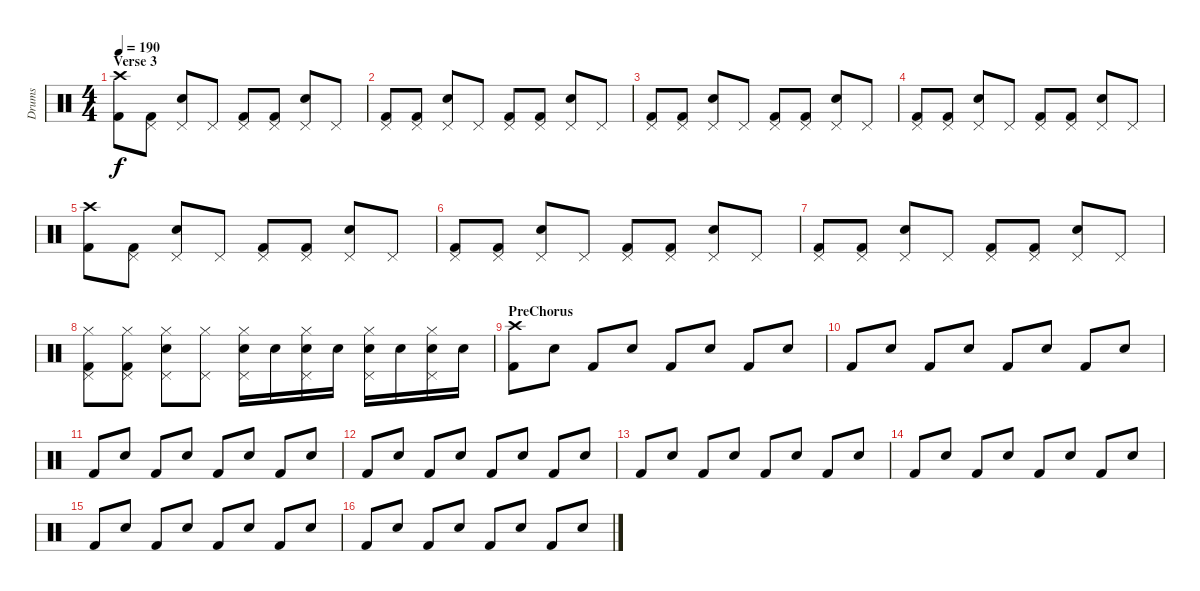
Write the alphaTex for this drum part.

\track ("Drums" "Drums") {instrument percussion}
\staff {score}
\articulation defaults
\ts (4 4)
\section ("" "Verse 3")
\tempo 190
\clef neutral
\ks c
("Crash high (hit)" "Kick (hit) 2").8{dy f} ("Pedal Hi-Hat (hit)" "Kick (hit) 2").8 ("Pedal Hi-Hat (hit)" "Snare (hit) 2").8 "Pedal Hi-Hat (hit)".8 ("Pedal Hi-Hat (hit)" "Kick (hit) 2").8 ("Pedal Hi-Hat (hit)" "Kick (hit) 2").8 ("Pedal Hi-Hat (hit)" "Snare (hit) 2").8 "Pedal Hi-Hat (hit)".8 |
("Pedal Hi-Hat (hit)" "Kick (hit) 2").8 ("Pedal Hi-Hat (hit)" "Kick (hit) 2").8 ("Pedal Hi-Hat (hit)" "Snare (hit) 2").8 "Pedal Hi-Hat (hit)".8 ("Pedal Hi-Hat (hit)" "Kick (hit) 2").8 ("Pedal Hi-Hat (hit)" "Kick (hit) 2").8 ("Pedal Hi-Hat (hit)" "Snare (hit) 2").8 "Pedal Hi-Hat (hit)".8 |
("Pedal Hi-Hat (hit)" "Kick (hit) 2").8 ("Pedal Hi-Hat (hit)" "Kick (hit) 2").8 ("Pedal Hi-Hat (hit)" "Snare (hit) 2").8 "Pedal Hi-Hat (hit)".8 ("Pedal Hi-Hat (hit)" "Kick (hit) 2").8 ("Pedal Hi-Hat (hit)" "Kick (hit) 2").8 ("Pedal Hi-Hat (hit)" "Snare (hit) 2").8 "Pedal Hi-Hat (hit)".8 |
("Pedal Hi-Hat (hit)" "Kick (hit) 2").8 ("Pedal Hi-Hat (hit)" "Kick (hit) 2").8 ("Pedal Hi-Hat (hit)" "Snare (hit) 2").8 "Pedal Hi-Hat (hit)".8 ("Pedal Hi-Hat (hit)" "Kick (hit) 2").8 ("Pedal Hi-Hat (hit)" "Kick (hit) 2").8 ("Pedal Hi-Hat (hit)" "Snare (hit) 2").8 "Pedal Hi-Hat (hit)".8 |
("Crash high (hit)" "Kick (hit) 2").8 ("Pedal Hi-Hat (hit)" "Kick (hit) 2").8 ("Pedal Hi-Hat (hit)" "Snare (hit) 2").8 "Pedal Hi-Hat (hit)".8 ("Pedal Hi-Hat (hit)" "Kick (hit) 2").8 ("Pedal Hi-Hat (hit)" "Kick (hit) 2").8 ("Pedal Hi-Hat (hit)" "Snare (hit) 2").8 "Pedal Hi-Hat (hit)".8 |
("Pedal Hi-Hat (hit)" "Kick (hit) 2").8 ("Pedal Hi-Hat (hit)" "Kick (hit) 2").8 ("Pedal Hi-Hat (hit)" "Snare (hit) 2").8 "Pedal Hi-Hat (hit)".8 ("Pedal Hi-Hat (hit)" "Kick (hit) 2").8 ("Pedal Hi-Hat (hit)" "Kick (hit) 2").8 ("Pedal Hi-Hat (hit)" "Snare (hit) 2").8 "Pedal Hi-Hat (hit)".8 |
("Pedal Hi-Hat (hit)" "Kick (hit) 2").8 ("Pedal Hi-Hat (hit)" "Kick (hit) 2").8 ("Pedal Hi-Hat (hit)" "Snare (hit) 2").8 "Pedal Hi-Hat (hit)".8 ("Pedal Hi-Hat (hit)" "Kick (hit) 2").8 ("Pedal Hi-Hat (hit)" "Kick (hit) 2").8 ("Pedal Hi-Hat (hit)" "Snare (hit) 2").8 "Pedal Hi-Hat (hit)".8 |
("Pedal Hi-Hat (hit)" "Hi-Hat (closed)" "Kick (hit) 2").8 ("Pedal Hi-Hat (hit)" "Hi-Hat (closed)" "Kick (hit) 2").8 ("Pedal Hi-Hat (hit)" "Hi-Hat (closed)" "Snare (hit) 2").8 ("Pedal Hi-Hat (hit)" "Hi-Hat (closed)").8 ("Pedal Hi-Hat (hit)" "Hi-Hat (closed)" "Snare (hit) 2").16 "Snare (hit) 2".16 ("Pedal Hi-Hat (hit)" "Hi-Hat (closed)" "Snare (hit) 2").16 "Snare (hit) 2".16 ("Pedal Hi-Hat (hit)" "Hi-Hat (closed)" "Snare (hit) 2").16 "Snare (hit) 2".16 ("Pedal Hi-Hat (hit)" "Hi-Hat (closed)" "Snare (hit) 2").16 "Snare (hit) 2".16 |
\section ("" "PreChorus")
("Crash high (hit)" "Kick (hit) 2").8 "Snare (hit) 2".8 "Kick (hit) 2".8 "Snare (hit) 2".8 "Kick (hit) 2".8 "Snare (hit) 2".8 "Kick (hit) 2".8 "Snare (hit) 2".8 |
"Kick (hit) 2".8 "Snare (hit) 2".8 "Kick (hit) 2".8 "Snare (hit) 2".8 "Kick (hit) 2".8 "Snare (hit) 2".8 "Kick (hit) 2".8 "Snare (hit) 2".8 |
"Kick (hit) 2".8 "Snare (hit) 2".8 "Kick (hit) 2".8 "Snare (hit) 2".8 "Kick (hit) 2".8 "Snare (hit) 2".8 "Kick (hit) 2".8 "Snare (hit) 2".8 |
"Kick (hit) 2".8 "Snare (hit) 2".8 "Kick (hit) 2".8 "Snare (hit) 2".8 "Kick (hit) 2".8 "Snare (hit) 2".8 "Kick (hit) 2".8 "Snare (hit) 2".8 |
"Kick (hit) 2".8 "Snare (hit) 2".8 "Kick (hit) 2".8 "Snare (hit) 2".8 "Kick (hit) 2".8 "Snare (hit) 2".8 "Kick (hit) 2".8 "Snare (hit) 2".8 |
"Kick (hit) 2".8 "Snare (hit) 2".8 "Kick (hit) 2".8 "Snare (hit) 2".8 "Kick (hit) 2".8 "Snare (hit) 2".8 "Kick (hit) 2".8 "Snare (hit) 2".8 |
"Kick (hit) 2".8 "Snare (hit) 2".8 "Kick (hit) 2".8 "Snare (hit) 2".8 "Kick (hit) 2".8 "Snare (hit) 2".8 "Kick (hit) 2".8 "Snare (hit) 2".8 |
"Kick (hit) 2".8 "Snare (hit) 2".8 "Kick (hit) 2".8 "Snare (hit) 2".8 "Kick (hit) 2".8 "Snare (hit) 2".8 "Kick (hit) 2".8 "Snare (hit) 2".8
